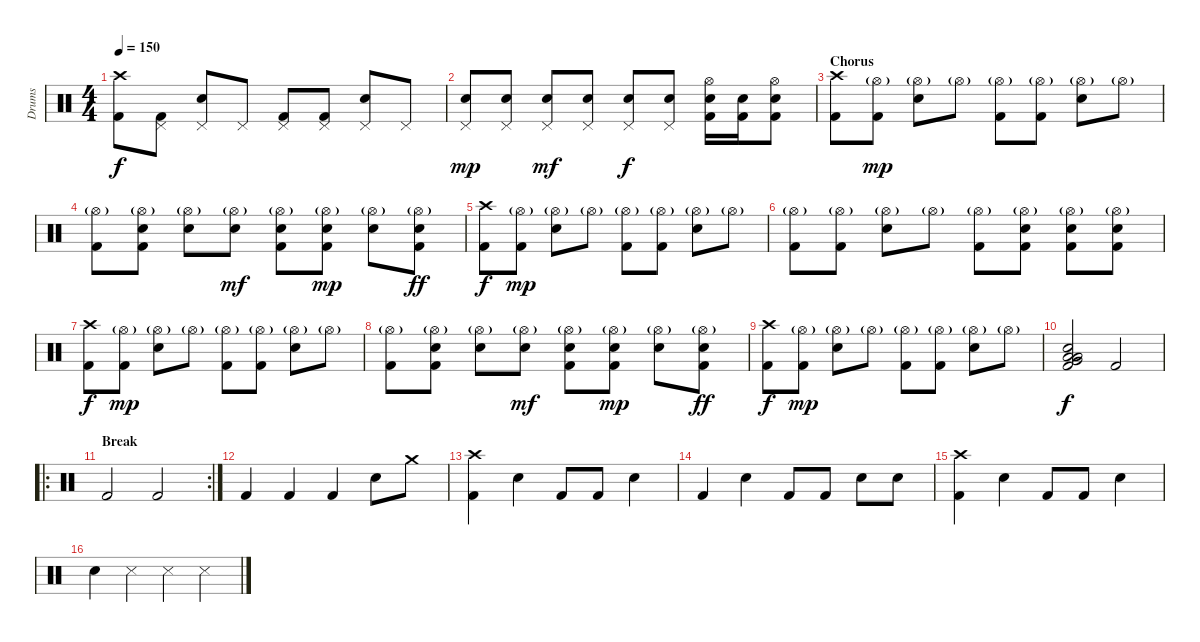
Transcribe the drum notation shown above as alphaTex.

\track ("Drums" "Drums") {instrument percussion}
\staff {score}
\articulation defaults
\ts (4 4)
\tempo 150
\clef neutral
\ks c
("Kick (hit) 2" "Crash high (hit)").8{dy f} ("Kick (hit) 2" "Pedal Hi-Hat (hit)").8 ("Snare (hit) 2" "Pedal Hi-Hat (hit)").8 "Pedal Hi-Hat (hit)".8 ("Kick (hit) 2" "Pedal Hi-Hat (hit)").8 ("Kick (hit) 2" "Pedal Hi-Hat (hit)").8 ("Snare (hit) 2" "Pedal Hi-Hat (hit)").8 "Pedal Hi-Hat (hit)".8 |
("Snare (hit) 2" "Pedal Hi-Hat (hit)").8{dy mp} ("Snare (hit) 2" "Pedal Hi-Hat (hit)").8 ("Snare (hit) 2" "Pedal Hi-Hat (hit)").8{dy mf} ("Snare (hit) 2" "Pedal Hi-Hat (hit)").8 ("Snare (hit) 2" "Pedal Hi-Hat (hit)").8{dy f} ("Snare (hit) 2" "Pedal Hi-Hat (hit)").8 ("Snare (hit) 2" "Kick (hit) 2" "Hi-Hat (open)").16 ("Snare (hit) 2" "Kick (hit) 2").16 ("Snare (hit) 2" "Kick (hit) 2" "Hi-Hat (open)").8 |
\section ("" "Chorus")
("Crash high (hit)" "Kick (hit) 2").8 ("Hi-Hat (open)"{g} "Kick (hit) 2").8{dy mp} ("Hi-Hat (open)"{g} "Snare (hit) 2").8 "Hi-Hat (open)"{g}.8 ("Hi-Hat (open)"{g} "Kick (hit) 2").8 ("Hi-Hat (open)"{g} "Kick (hit) 2").8 ("Hi-Hat (open)"{g} "Snare (hit) 2").8 "Hi-Hat (open)"{g}.8 |
("Hi-Hat (open)"{g} "Kick (hit) 2").8 ("Hi-Hat (open)"{g} "Snare (hit) 2" "Kick (hit) 2").8 ("Hi-Hat (open)"{g} "Snare (hit) 2").8 ("Hi-Hat (open)"{g} "Snare (hit) 2").8{dy mf} ("Hi-Hat (open)"{g} "Snare (hit) 2" "Kick (hit) 2").8 ("Hi-Hat (open)"{g} "Snare (hit) 2" "Kick (hit) 2").8{dy mp} ("Hi-Hat (open)"{g} "Snare (hit) 2").8 ("Hi-Hat (open)"{g} "Snare (hit) 2" "Kick (hit) 2").8{dy ff} |
("Crash high (hit)" "Kick (hit) 2").8{dy f} ("Hi-Hat (open)"{g} "Kick (hit) 2").8{dy mp} ("Hi-Hat (open)"{g} "Snare (hit) 2").8 "Hi-Hat (open)"{g}.8 ("Hi-Hat (open)"{g} "Kick (hit) 2").8 ("Hi-Hat (open)"{g} "Kick (hit) 2").8 ("Hi-Hat (open)"{g} "Snare (hit) 2").8 "Hi-Hat (open)"{g}.8 |
("Hi-Hat (open)"{g} "Kick (hit) 2").8 ("Hi-Hat (open)"{g} "Kick (hit) 2").8 ("Hi-Hat (open)"{g} "Snare (hit) 2").8 "Hi-Hat (open)"{g}.8 ("Hi-Hat (open)"{g} "Kick (hit) 2").8 ("Hi-Hat (open)"{g} "Snare (hit) 2" "Kick (hit) 2").8 ("Hi-Hat (open)"{g} "Snare (hit) 2" "Kick (hit) 2").8 ("Hi-Hat (open)"{g} "Snare (hit) 2" "Kick (hit) 2").8 |
("Crash high (hit)" "Kick (hit) 2").8{dy f} ("Hi-Hat (open)"{g} "Kick (hit) 2").8{dy mp} ("Hi-Hat (open)"{g} "Snare (hit) 2").8 "Hi-Hat (open)"{g}.8 ("Hi-Hat (open)"{g} "Kick (hit) 2").8 ("Hi-Hat (open)"{g} "Kick (hit) 2").8 ("Hi-Hat (open)"{g} "Snare (hit) 2").8 "Hi-Hat (open)"{g}.8 |
("Hi-Hat (open)"{g} "Kick (hit) 2").8 ("Hi-Hat (open)"{g} "Snare (hit) 2" "Kick (hit) 2").8 ("Hi-Hat (open)"{g} "Snare (hit) 2").8 ("Hi-Hat (open)"{g} "Snare (hit) 2").8{dy mf} ("Hi-Hat (open)"{g} "Snare (hit) 2" "Kick (hit) 2").8 ("Hi-Hat (open)"{g} "Snare (hit) 2" "Kick (hit) 2").8{dy mp} ("Hi-Hat (open)"{g} "Snare (hit) 2").8 ("Hi-Hat (open)"{g} "Snare (hit) 2" "Kick (hit) 2").8{dy ff} |
("Crash high (hit)" "Kick (hit) 2").8{dy f} ("Hi-Hat (open)"{g} "Kick (hit) 2").8{dy mp} ("Hi-Hat (open)"{g} "Snare (hit) 2").8 "Hi-Hat (open)"{g}.8 ("Hi-Hat (open)"{g} "Kick (hit) 2").8 ("Hi-Hat (open)"{g} "Kick (hit) 2").8 ("Hi-Hat (open)"{g} "Snare (hit) 2").8 "Hi-Hat (open)"{g}.8 |
("Low Floor Tom (hit)" "Very Low Tom (hit)" "Low Tom (hit)" "Kick (hit) 2" "Snare (hit) 2").2{dy f} "Kick (hit) 2".2 |
\ro
\rc 2
\section ("" "Break")
"Kick (hit) 2".2 "Kick (hit) 2".2 |
"Kick (hit) 2".4 "Kick (hit) 2".4 "Kick (hit) 2".4 "Snare (hit) 2".8 "Crash medium (hit)".8 |
("Crash high (hit)" "Kick (hit) 2").4 "Snare (hit) 2".4 "Kick (hit) 2".8 "Kick (hit) 2".8 "Snare (hit) 2".4 |
"Kick (hit) 2".4 "Snare (hit) 2".4 "Kick (hit) 2".8 "Kick (hit) 2".8 "Snare (hit) 2".8 "Snare (hit) 2".8 |
("Crash high (hit)" "Kick (hit) 2").4 "Snare (hit) 2".4 "Kick (hit) 2".8 "Kick (hit) 2".8 "Snare (hit) 2".4 |
"Snare (hit) 2".4 "Metronome (hit)".4 "Metronome (hit)".4 "Metronome (hit)".4
